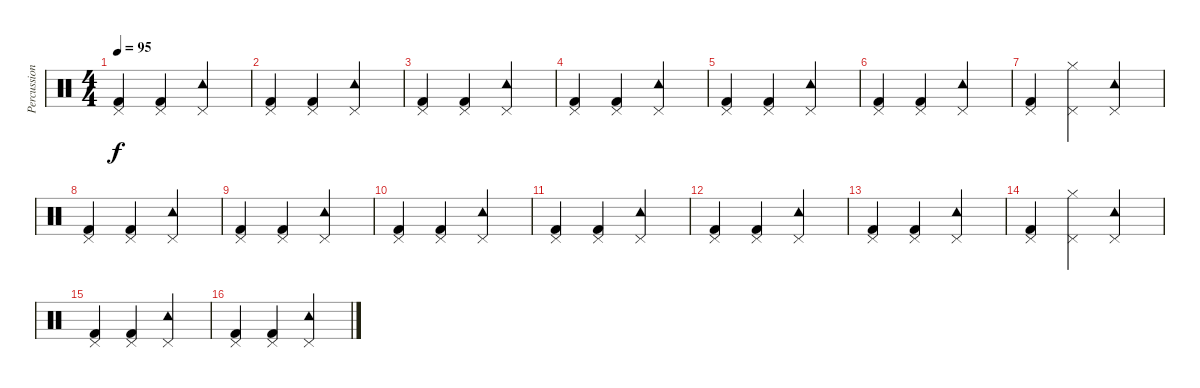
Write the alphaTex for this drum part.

\track ("Percussions" "Percussion") {instrument percussion}
\staff {score}
\articulation defaults
\ts (4 4)
\tempo 95
\clef neutral
\ks c
("Kick (hit) 2" "Pedal Hi-Hat (hit)").4{dy f} ("Kick (hit) 2" "Pedal Hi-Hat (hit)").4 ("Tambourine (hit)" "Pedal Hi-Hat (hit)").2 |
("Kick (hit) 2" "Pedal Hi-Hat (hit)").4 ("Kick (hit) 2" "Pedal Hi-Hat (hit)").4 ("Tambourine (hit)" "Pedal Hi-Hat (hit)").2 |
("Kick (hit) 2" "Pedal Hi-Hat (hit)").4 ("Kick (hit) 2" "Pedal Hi-Hat (hit)").4 ("Tambourine (hit)" "Pedal Hi-Hat (hit)").2 |
("Kick (hit) 2" "Pedal Hi-Hat (hit)").4 ("Kick (hit) 2" "Pedal Hi-Hat (hit)").4 ("Tambourine (hit)" "Pedal Hi-Hat (hit)").2 |
("Kick (hit) 2" "Pedal Hi-Hat (hit)").4 ("Kick (hit) 2" "Pedal Hi-Hat (hit)").4 ("Tambourine (hit)" "Pedal Hi-Hat (hit)").2 |
("Kick (hit) 2" "Pedal Hi-Hat (hit)").4 ("Kick (hit) 2" "Pedal Hi-Hat (hit)").4 ("Tambourine (hit)" "Pedal Hi-Hat (hit)").2 |
("Kick (hit) 2" "Pedal Hi-Hat (hit)").4 ("Hi-Hat (closed)" "Pedal Hi-Hat (hit)").4 ("Tambourine (hit)" "Pedal Hi-Hat (hit)").2 |
("Kick (hit) 2" "Pedal Hi-Hat (hit)").4 ("Kick (hit) 2" "Pedal Hi-Hat (hit)").4 ("Tambourine (hit)" "Pedal Hi-Hat (hit)").2 |
("Kick (hit) 2" "Pedal Hi-Hat (hit)").4 ("Kick (hit) 2" "Pedal Hi-Hat (hit)").4 ("Tambourine (hit)" "Pedal Hi-Hat (hit)").2 |
("Kick (hit) 2" "Pedal Hi-Hat (hit)").4 ("Kick (hit) 2" "Pedal Hi-Hat (hit)").4 ("Tambourine (hit)" "Pedal Hi-Hat (hit)").2 |
("Kick (hit) 2" "Pedal Hi-Hat (hit)").4 ("Kick (hit) 2" "Pedal Hi-Hat (hit)").4 ("Tambourine (hit)" "Pedal Hi-Hat (hit)").2 |
("Kick (hit) 2" "Pedal Hi-Hat (hit)").4 ("Kick (hit) 2" "Pedal Hi-Hat (hit)").4 ("Tambourine (hit)" "Pedal Hi-Hat (hit)").2 |
("Kick (hit) 2" "Pedal Hi-Hat (hit)").4 ("Kick (hit) 2" "Pedal Hi-Hat (hit)").4 ("Tambourine (hit)" "Pedal Hi-Hat (hit)").2 |
("Kick (hit) 2" "Pedal Hi-Hat (hit)").4 ("Hi-Hat (closed)" "Pedal Hi-Hat (hit)").4 ("Tambourine (hit)" "Pedal Hi-Hat (hit)").2 |
("Kick (hit) 2" "Pedal Hi-Hat (hit)").4 ("Kick (hit) 2" "Pedal Hi-Hat (hit)").4 ("Tambourine (hit)" "Pedal Hi-Hat (hit)").2 |
("Kick (hit) 2" "Pedal Hi-Hat (hit)").4 ("Kick (hit) 2" "Pedal Hi-Hat (hit)").4 ("Tambourine (hit)" "Pedal Hi-Hat (hit)").2
